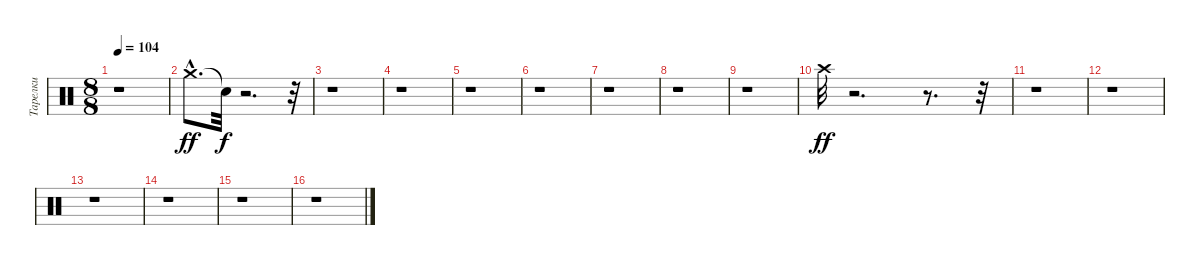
\track ("Тарелки" "Тарелки") {instrument percussion}
\staff {score}
\articulation defaults
\ts (8 8)
\tempo 104
\clef neutral
\ks c
r.1{dy ff} |
"Crash medium (hit)"{hac}.8{d} "Snare (hit)"{t}.32{dy f} r.2{d} r.32 |
r.1 |
r.1 |
r.1 |
r.1 |
r.1 |
r.1 |
r.1 |
"Crash high (hit)".32{dy ff} r.2{d} r.8{d} r.32 |
r.1 |
r.1 |
r.1 |
r.1 |
r.1 |
r.1
